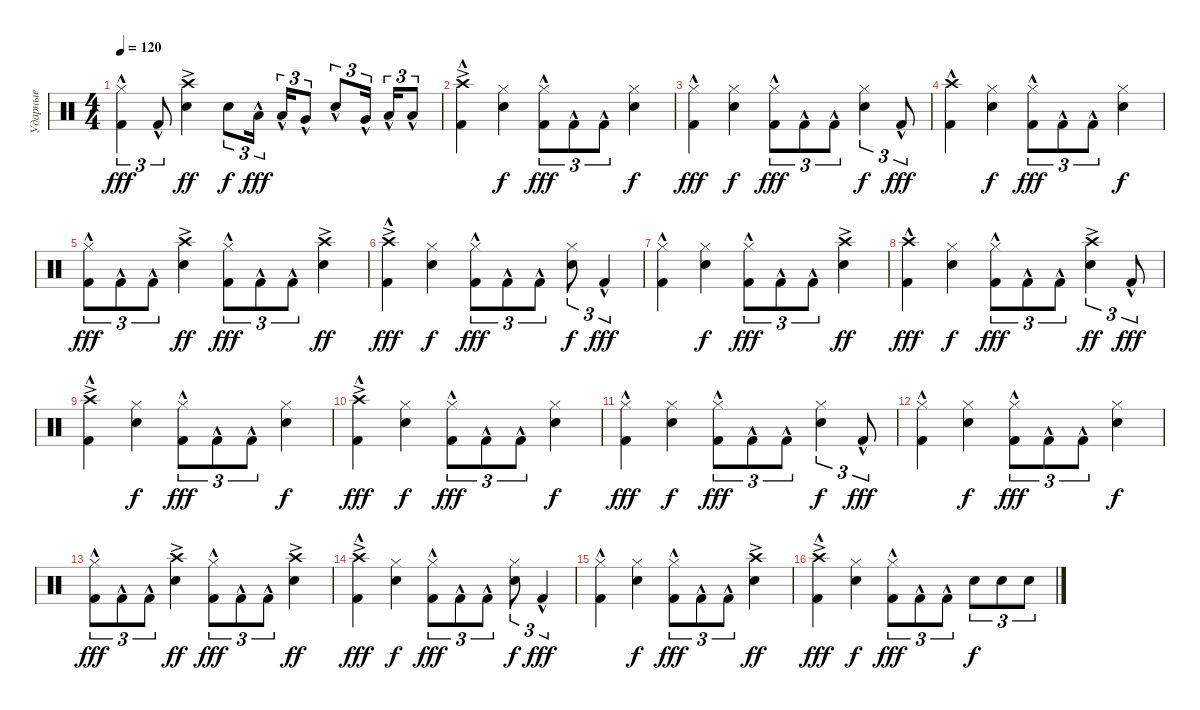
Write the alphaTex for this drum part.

\track ("Ударные" "Ударные") {instrument percussion}
\staff {score}
\articulation defaults
\ts (4 4)
\tempo 120
\clef neutral
\ks c
("Hi-Hat (closed)" "Kick (hit) 2"{hac}).4{tu (3 2) dy fff} "Kick (hit) 2"{hac}.8{tu (3 2)} ("Crash high (hit)"{ac} "Snare (hit) 2").4{dy ff} "Snare (hit) 2".8{tu (3 2) dy f} "Low Tom (hit)"{hac}.16{tu (3 2) dy fff beam splitsecondary} "Low Tom (hit)"{hac}.16{tu (3 2)} "Very Low Tom (hit)"{hac}.8{tu (3 2)} "Snare (hit) 2"{hac}.8{tu (3 2)} "Very Low Tom (hit)"{hac}.16{tu (3 2) beam splitsecondary} "Low Floor Tom (hit)"{hac}.16{tu (3 2)} "Low Floor Tom (hit)"{hac}.8{tu (3 2)} |
("Crash high (hit)"{ac} "Kick (hit) 2"{hac}).4 ("Hi-Hat (closed)" "Snare (hit) 2").4{dy f} ("Hi-Hat (closed)" "Kick (hit) 2"{hac}).8{tu (3 2) dy fff} "Kick (hit) 2"{hac}.8{tu (3 2)} "Kick (hit) 2"{hac}.8{tu (3 2)} ("Hi-Hat (closed)" "Snare (hit) 2").4{dy f} |
("Hi-Hat (closed)" "Kick (hit) 2"{hac}).4{dy fff} ("Hi-Hat (closed)" "Snare (hit) 2").4{dy f} ("Hi-Hat (closed)" "Kick (hit) 2"{hac}).8{tu (3 2) dy fff} "Kick (hit) 2"{hac}.8{tu (3 2)} "Kick (hit) 2"{hac}.8{tu (3 2)} ("Hi-Hat (closed)" "Snare (hit) 2").4{tu (3 2) dy f} "Kick (hit) 2"{hac}.8{tu (3 2) dy fff} |
("Crash high (hit)" "Kick (hit) 2"{hac}).4 ("Hi-Hat (closed)" "Snare (hit) 2").4{dy f} ("Hi-Hat (closed)" "Kick (hit) 2"{hac}).8{tu (3 2) dy fff} "Kick (hit) 2"{hac}.8{tu (3 2)} "Kick (hit) 2"{hac}.8{tu (3 2)} ("Hi-Hat (closed)" "Snare (hit) 2").4{dy f} |
("Hi-Hat (closed)" "Kick (hit) 2"{hac}).8{tu (3 2) dy fff} "Kick (hit) 2"{hac}.8{tu (3 2)} "Kick (hit) 2"{hac}.8{tu (3 2)} ("Crash high (hit)"{ac} "Snare (hit) 2").4{dy ff} ("Hi-Hat (closed)" "Kick (hit) 2"{hac}).8{tu (3 2) dy fff} "Kick (hit) 2"{hac}.8{tu (3 2)} "Kick (hit) 2"{hac}.8{tu (3 2)} ("Crash high (hit)"{ac} "Snare (hit) 2").4{dy ff} |
("Crash high (hit)"{ac} "Kick (hit) 2"{hac}).4{dy fff} ("Hi-Hat (closed)" "Snare (hit) 2").4{dy f} ("Hi-Hat (closed)" "Kick (hit) 2"{hac}).8{tu (3 2) dy fff} "Kick (hit) 2"{hac}.8{tu (3 2)} "Kick (hit) 2"{hac}.8{tu (3 2)} ("Hi-Hat (closed)" "Snare (hit) 2").8{tu (3 2) dy f} "Kick (hit) 2"{hac}.4{tu (3 2) dy fff} |
("Hi-Hat (closed)" "Kick (hit) 2"{hac}).4 ("Hi-Hat (closed)" "Snare (hit) 2").4{dy f} ("Hi-Hat (closed)" "Kick (hit) 2"{hac}).8{tu (3 2) dy fff} "Kick (hit) 2"{hac}.8{tu (3 2)} "Kick (hit) 2"{hac}.8{tu (3 2)} ("Crash high (hit)"{ac} "Snare (hit) 2").4{dy ff} |
("Crash high (hit)" "Kick (hit) 2"{hac}).4{dy fff} ("Hi-Hat (closed)" "Snare (hit) 2").4{dy f} ("Hi-Hat (closed)" "Kick (hit) 2"{hac}).8{tu (3 2) dy fff} "Kick (hit) 2"{hac}.8{tu (3 2)} "Kick (hit) 2"{hac}.8{tu (3 2)} ("Crash high (hit)"{ac} "Snare (hit) 2").4{tu (3 2) dy ff} "Kick (hit) 2"{hac}.8{tu (3 2) dy fff} |
("Crash high (hit)"{ac} "Kick (hit) 2"{hac}).4 ("Hi-Hat (closed)" "Snare (hit) 2").4{dy f} ("Hi-Hat (closed)" "Kick (hit) 2"{hac}).8{tu (3 2) dy fff} "Kick (hit) 2"{hac}.8{tu (3 2)} "Kick (hit) 2"{hac}.8{tu (3 2)} ("Hi-Hat (closed)" "Snare (hit) 2").4{dy f} |
("Crash high (hit)"{ac} "Kick (hit) 2"{hac}).4{dy fff} ("Hi-Hat (closed)" "Snare (hit) 2").4{dy f} ("Hi-Hat (closed)" "Kick (hit) 2"{hac}).8{tu (3 2) dy fff} "Kick (hit) 2"{hac}.8{tu (3 2)} "Kick (hit) 2"{hac}.8{tu (3 2)} ("Hi-Hat (closed)" "Snare (hit) 2").4{dy f} |
("Hi-Hat (closed)" "Kick (hit) 2"{hac}).4{dy fff} ("Hi-Hat (closed)" "Snare (hit) 2").4{dy f} ("Hi-Hat (closed)" "Kick (hit) 2"{hac}).8{tu (3 2) dy fff} "Kick (hit) 2"{hac}.8{tu (3 2)} "Kick (hit) 2"{hac}.8{tu (3 2)} ("Hi-Hat (closed)" "Snare (hit) 2").4{tu (3 2) dy f} "Kick (hit) 2"{hac}.8{tu (3 2) dy fff} |
("Hi-Hat (closed)" "Kick (hit) 2"{hac}).4 ("Hi-Hat (closed)" "Snare (hit) 2").4{dy f} ("Hi-Hat (closed)" "Kick (hit) 2"{hac}).8{tu (3 2) dy fff} "Kick (hit) 2"{hac}.8{tu (3 2)} "Kick (hit) 2"{hac}.8{tu (3 2)} ("Hi-Hat (closed)" "Snare (hit) 2").4{dy f} |
("Hi-Hat (closed)" "Kick (hit) 2"{hac}).8{tu (3 2) dy fff} "Kick (hit) 2"{hac}.8{tu (3 2)} "Kick (hit) 2"{hac}.8{tu (3 2)} ("Crash high (hit)"{ac} "Snare (hit) 2").4{dy ff} ("Hi-Hat (closed)" "Kick (hit) 2"{hac}).8{tu (3 2) dy fff} "Kick (hit) 2"{hac}.8{tu (3 2)} "Kick (hit) 2"{hac}.8{tu (3 2)} ("Crash high (hit)"{ac} "Snare (hit) 2").4{dy ff} |
("Crash high (hit)"{ac} "Kick (hit) 2"{hac}).4{dy fff} ("Hi-Hat (closed)" "Snare (hit) 2").4{dy f} ("Hi-Hat (closed)" "Kick (hit) 2"{hac}).8{tu (3 2) dy fff} "Kick (hit) 2"{hac}.8{tu (3 2)} "Kick (hit) 2"{hac}.8{tu (3 2)} ("Hi-Hat (closed)" "Snare (hit) 2").8{tu (3 2) dy f} "Kick (hit) 2"{hac}.4{tu (3 2) dy fff} |
("Hi-Hat (closed)" "Kick (hit) 2"{hac}).4 ("Hi-Hat (closed)" "Snare (hit) 2").4{dy f} ("Hi-Hat (closed)" "Kick (hit) 2"{hac}).8{tu (3 2) dy fff} "Kick (hit) 2"{hac}.8{tu (3 2)} "Kick (hit) 2"{hac}.8{tu (3 2)} ("Crash high (hit)"{ac} "Snare (hit) 2").4{dy ff} |
("Crash high (hit)"{ac} "Kick (hit) 2"{hac}).4{dy fff} ("Hi-Hat (closed)" "Snare (hit) 2").4{dy f} ("Hi-Hat (closed)" "Kick (hit) 2"{hac}).8{tu (3 2) dy fff} "Kick (hit) 2"{hac}.8{tu (3 2)} "Kick (hit) 2"{hac}.8{tu (3 2)} "Snare (hit) 2".8{tu (3 2) dy f} "Snare (hit) 2".8{tu (3 2)} "Snare (hit) 2".8{tu (3 2)}
